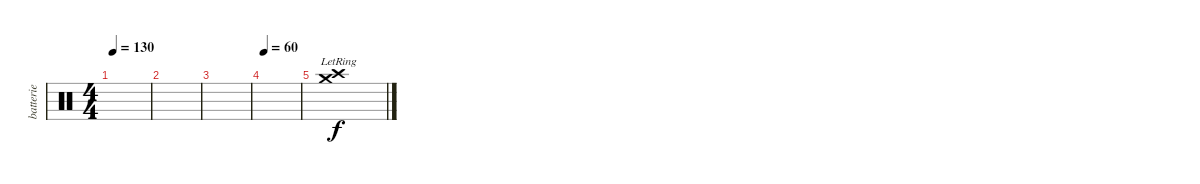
\track ("batterie" "batterie") {instrument percussion}
\staff {score}
\articulation defaults
\ts (4 4)
\tempo 130
\clef neutral
\ks c
|
|
|
\tempo 60
|
("Crash high (hit)"{lr} "Crash medium (hit)"{lr}).1{bd 480}
